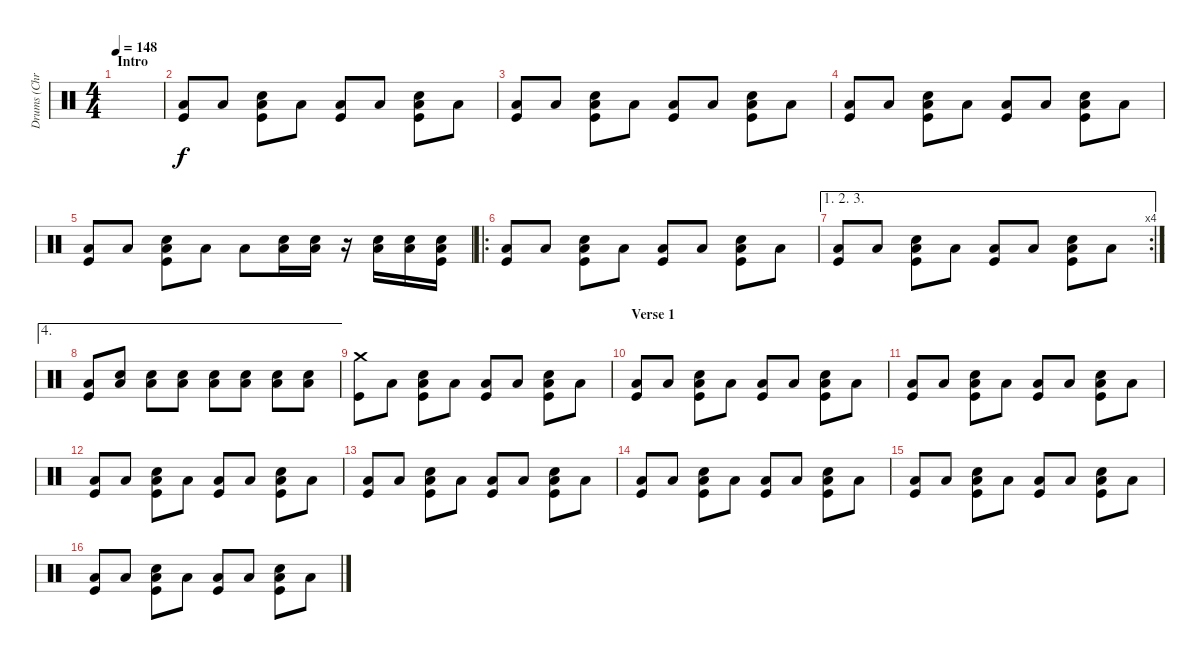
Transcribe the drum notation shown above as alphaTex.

\track ("Drums (Chris Dangerous)" "Drums (Chr") {instrument percussion}
\staff {score}
\articulation defaults
\ts (4 4)
\section ("" "Intro")
\tempo 148
\clef neutral
\ks c
|
("Low Tom (hit)" "Kick (hit)").8 "Low Tom (hit)".8 ("Low Tom (hit)" "Kick (hit)" "Snare (hit) 2").8 "Low Tom (hit)".8 ("Low Tom (hit)" "Kick (hit)").8 "Low Tom (hit)".8 ("Low Tom (hit)" "Kick (hit)" "Snare (hit) 2").8 "Low Tom (hit)".8 |
("Low Tom (hit)" "Kick (hit)").8 "Low Tom (hit)".8 ("Low Tom (hit)" "Kick (hit)" "Snare (hit) 2").8 "Low Tom (hit)".8 ("Low Tom (hit)" "Kick (hit)").8 "Low Tom (hit)".8 ("Low Tom (hit)" "Kick (hit)" "Snare (hit) 2").8 "Low Tom (hit)".8 |
("Low Tom (hit)" "Kick (hit)").8 "Low Tom (hit)".8 ("Low Tom (hit)" "Kick (hit)" "Snare (hit) 2").8 "Low Tom (hit)".8 ("Low Tom (hit)" "Kick (hit)").8 "Low Tom (hit)".8 ("Low Tom (hit)" "Kick (hit)" "Snare (hit) 2").8 "Low Tom (hit)".8 |
("Low Tom (hit)" "Kick (hit)").8 "Low Tom (hit)".8 ("Low Tom (hit)" "Kick (hit)" "Snare (hit) 2").8 "Low Tom (hit)".8 "Low Tom (hit)".8 ("Low Tom (hit)" "Snare (hit) 2").16 ("Low Tom (hit)" "Snare (hit) 2").16 r.16 ("Low Tom (hit)" "Snare (hit) 2").16 ("Low Tom (hit)" "Snare (hit) 2").16 ("Low Tom (hit)" "Kick (hit)" "Snare (hit) 2").16 |
\ro
("Low Tom (hit)" "Kick (hit)").8 "Low Tom (hit)".8 ("Low Tom (hit)" "Kick (hit)" "Snare (hit) 2").8 "Low Tom (hit)".8 ("Low Tom (hit)" "Kick (hit)").8 "Low Tom (hit)".8 ("Low Tom (hit)" "Kick (hit)" "Snare (hit) 2").8 "Low Tom (hit)".8 |
\ae (1 2 3)
\rc 4
("Low Tom (hit)" "Kick (hit)").8 "Low Tom (hit)".8 ("Low Tom (hit)" "Kick (hit)" "Snare (hit) 2").8 "Low Tom (hit)".8 ("Low Tom (hit)" "Kick (hit)").8 "Low Tom (hit)".8 ("Low Tom (hit)" "Kick (hit)" "Snare (hit) 2").8 "Low Tom (hit)".8 |
\ae 4
("Low Tom (hit)" "Kick (hit)").8 ("Low Tom (hit)" "Snare (hit) 2").8 ("Low Tom (hit)" "Snare (hit) 2").8 ("Low Tom (hit)" "Snare (hit) 2").8 ("Low Tom (hit)" "Snare (hit) 2").8 ("Low Tom (hit)" "Snare (hit) 2").8 ("Low Tom (hit)" "Snare (hit) 2").8 ("Low Tom (hit)" "Snare (hit) 2").8 |
("Kick (hit)" "Crash medium (hit)").8 "Low Tom (hit)".8 ("Low Tom (hit)" "Kick (hit)" "Snare (hit) 2").8 "Low Tom (hit)".8 ("Low Tom (hit)" "Kick (hit)").8 "Low Tom (hit)".8 ("Low Tom (hit)" "Kick (hit)" "Snare (hit) 2").8 "Low Tom (hit)".8 |
\section ("" "Verse 1")
("Low Tom (hit)" "Kick (hit)").8 "Low Tom (hit)".8 ("Low Tom (hit)" "Kick (hit)" "Snare (hit) 2").8 "Low Tom (hit)".8 ("Low Tom (hit)" "Kick (hit)").8 "Low Tom (hit)".8 ("Low Tom (hit)" "Kick (hit)" "Snare (hit) 2").8 "Low Tom (hit)".8 |
("Low Tom (hit)" "Kick (hit)").8 "Low Tom (hit)".8 ("Low Tom (hit)" "Kick (hit)" "Snare (hit) 2").8 "Low Tom (hit)".8 ("Low Tom (hit)" "Kick (hit)").8 "Low Tom (hit)".8 ("Low Tom (hit)" "Kick (hit)" "Snare (hit) 2").8 "Low Tom (hit)".8 |
("Low Tom (hit)" "Kick (hit)").8 "Low Tom (hit)".8 ("Low Tom (hit)" "Kick (hit)" "Snare (hit) 2").8 "Low Tom (hit)".8 ("Low Tom (hit)" "Kick (hit)").8 "Low Tom (hit)".8 ("Low Tom (hit)" "Kick (hit)" "Snare (hit) 2").8 "Low Tom (hit)".8 |
("Low Tom (hit)" "Kick (hit)").8 "Low Tom (hit)".8 ("Low Tom (hit)" "Kick (hit)" "Snare (hit) 2").8 "Low Tom (hit)".8 ("Low Tom (hit)" "Kick (hit)").8 "Low Tom (hit)".8 ("Low Tom (hit)" "Kick (hit)" "Snare (hit) 2").8 "Low Tom (hit)".8 |
("Low Tom (hit)" "Kick (hit)").8 "Low Tom (hit)".8 ("Low Tom (hit)" "Kick (hit)" "Snare (hit) 2").8 "Low Tom (hit)".8 ("Low Tom (hit)" "Kick (hit)").8 "Low Tom (hit)".8 ("Low Tom (hit)" "Kick (hit)" "Snare (hit) 2").8 "Low Tom (hit)".8 |
("Low Tom (hit)" "Kick (hit)").8 "Low Tom (hit)".8 ("Low Tom (hit)" "Kick (hit)" "Snare (hit) 2").8 "Low Tom (hit)".8 ("Low Tom (hit)" "Kick (hit)").8 "Low Tom (hit)".8 ("Low Tom (hit)" "Kick (hit)" "Snare (hit) 2").8 "Low Tom (hit)".8 |
("Low Tom (hit)" "Kick (hit)").8 "Low Tom (hit)".8 ("Low Tom (hit)" "Kick (hit)" "Snare (hit) 2").8 "Low Tom (hit)".8 ("Low Tom (hit)" "Kick (hit)").8 "Low Tom (hit)".8 ("Low Tom (hit)" "Kick (hit)" "Snare (hit) 2").8 "Low Tom (hit)".8
